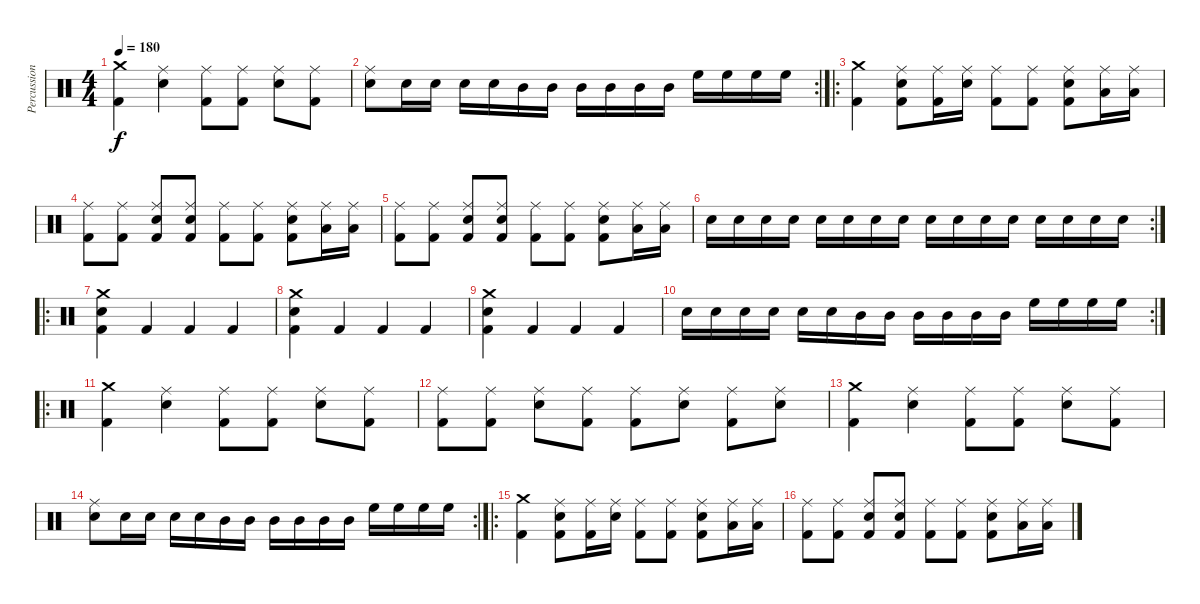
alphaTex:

\track ("Percussions" "Percussion") {instrument percussion}
\staff {score}
\articulation defaults
\ts (4 4)
\tempo 180
\clef neutral
\ks c
("Crash medium (hit)" "Kick (hit) 2").4{dy f} ("Ride (middle)" "Electric Snare (hit)").4 ("Ride (middle)" "Kick (hit) 2").8 ("Ride (middle)" "Kick (hit) 2").8 ("Ride (middle)" "Electric Snare (hit)").8 ("Ride (middle)" "Kick (hit) 2").8 |
\rc 2
("Ride (middle)" "Electric Snare (hit)").8 "Electric Snare (hit)".16 "Electric Snare (hit)".16 "Electric Snare (hit)".16 "Electric Snare (hit)".16 "Mid Tom (hit)".16 "Mid Tom (hit)".16 "Mid Tom (hit)".16 "Mid Tom (hit)".16 "Mid Tom (hit)".16 "Mid Tom (hit)".16 "High Floor Tom (hit)".16 "High Floor Tom (hit)".16 "High Floor Tom (hit)".16 "High Floor Tom (hit)".16 |
\ro
("Crash medium (hit)" "Kick (hit) 2").4 ("Ride (middle)" "Electric Snare (hit)" "Kick (hit) 2").8 ("Ride (middle)" "Kick (hit) 2").16 ("Ride (middle)" "Electric Snare (hit)").16 ("Ride (middle)" "Kick (hit) 2").8 ("Ride (middle)" "Kick (hit) 2").8 ("Ride (middle)" "Electric Snare (hit)" "Kick (hit) 2").8 ("Ride (middle)" "Low Floor Tom (hit)").16 ("Ride (middle)" "Low Floor Tom (hit)").16 |
("Ride (middle)" "Kick (hit) 2").8 ("Ride (middle)" "Kick (hit) 2").8 ("Ride (middle)" "Electric Snare (hit)" "Kick (hit) 2").8 ("Ride (middle)" "Electric Snare (hit)" "Kick (hit) 2").8 ("Ride (middle)" "Kick (hit) 2").8 ("Ride (middle)" "Kick (hit) 2").8 ("Ride (middle)" "Electric Snare (hit)" "Kick (hit) 2").8 ("Ride (middle)" "Low Floor Tom (hit)").16 ("Ride (middle)" "Low Floor Tom (hit)").16 |
("Ride (middle)" "Kick (hit) 2").8 ("Ride (middle)" "Kick (hit) 2").8 ("Ride (middle)" "Electric Snare (hit)" "Kick (hit) 2").8 ("Ride (middle)" "Electric Snare (hit)" "Kick (hit) 2").8 ("Ride (middle)" "Kick (hit) 2").8 ("Ride (middle)" "Kick (hit) 2").8 ("Ride (middle)" "Electric Snare (hit)" "Kick (hit) 2").8 ("Ride (middle)" "Low Floor Tom (hit)").16 ("Ride (middle)" "Low Floor Tom (hit)").16 |
\rc 2 "Electric Snare (hit)".16 "Electric Snare (hit)".16 "Electric Snare (hit)".16 "Electric Snare (hit)".16 "Electric Snare (hit)".16 "Electric Snare (hit)".16 "Electric Snare (hit)".16 "Electric Snare (hit)".16 "Electric Snare (hit)".16 "Electric Snare (hit)".16 "Electric Snare (hit)".16 "Electric Snare (hit)".16 "Electric Snare (hit)".16 "Electric Snare (hit)".16 "Electric Snare (hit)".16 "Electric Snare (hit)".16
|
\ro
("Crash medium (hit)" "Electric Snare (hit)" "Kick (hit) 2").4 "Kick (hit) 2".4 "Kick (hit) 2".4 "Kick (hit) 2".4 |
("Crash medium (hit)" "Electric Snare (hit)" "Kick (hit) 2").4 "Kick (hit) 2".4 "Kick (hit) 2".4 "Kick (hit) 2".4 |
("Crash medium (hit)" "Electric Snare (hit)" "Kick (hit) 2").4 "Kick (hit) 2".4 "Kick (hit) 2".4 "Kick (hit) 2".4 |
\rc 2 "Electric Snare (hit)".16 "Electric Snare (hit)".16 "Electric Snare (hit)".16 "Electric Snare (hit)".16 "Electric Snare (hit)".16 "Electric Snare (hit)".16 "Mid Tom (hit)".16 "Mid Tom (hit)".16 "Mid Tom (hit)".16 "Mid Tom (hit)".16 "Mid Tom (hit)".16 "Mid Tom (hit)".16 "High Floor Tom (hit)".16 "High Floor Tom (hit)".16 "High Floor Tom (hit)".16 "High Floor Tom (hit)".16
|
\ro
("Crash medium (hit)" "Kick (hit) 2").4 ("Ride (middle)" "Electric Snare (hit)").4 ("Ride (middle)" "Kick (hit) 2").8 ("Ride (middle)" "Kick (hit) 2").8 ("Ride (middle)" "Electric Snare (hit)").8 ("Ride (middle)" "Kick (hit) 2").8 |
("Ride (middle)" "Kick (hit) 2").8 ("Ride (middle)" "Kick (hit) 2").8 ("Ride (middle)" "Electric Snare (hit)").8 ("Ride (middle)" "Kick (hit) 2").8 ("Ride (middle)" "Kick (hit) 2").8 ("Ride (middle)" "Electric Snare (hit)").8 ("Ride (middle)" "Kick (hit) 2").8 ("Ride (middle)" "Electric Snare (hit)").8 |
("Crash medium (hit)" "Kick (hit) 2").4 ("Ride (middle)" "Electric Snare (hit)").4 ("Ride (middle)" "Kick (hit) 2").8 ("Ride (middle)" "Kick (hit) 2").8 ("Ride (middle)" "Electric Snare (hit)").8 ("Ride (middle)" "Kick (hit) 2").8 |
\rc 2
("Ride (middle)" "Electric Snare (hit)").8 "Electric Snare (hit)".16 "Electric Snare (hit)".16 "Electric Snare (hit)".16 "Electric Snare (hit)".16 "Mid Tom (hit)".16 "Mid Tom (hit)".16 "Mid Tom (hit)".16 "Mid Tom (hit)".16 "Mid Tom (hit)".16 "Mid Tom (hit)".16 "High Floor Tom (hit)".16 "High Floor Tom (hit)".16 "High Floor Tom (hit)".16 "High Floor Tom (hit)".16 |
\ro
("Crash medium (hit)" "Kick (hit) 2").4 ("Ride (middle)" "Electric Snare (hit)" "Kick (hit) 2").8 ("Ride (middle)" "Kick (hit) 2").16 ("Ride (middle)" "Electric Snare (hit)").16 ("Ride (middle)" "Kick (hit) 2").8 ("Ride (middle)" "Kick (hit) 2").8 ("Ride (middle)" "Electric Snare (hit)" "Kick (hit) 2").8 ("Ride (middle)" "Low Floor Tom (hit)").16 ("Ride (middle)" "Low Floor Tom (hit)").16 |
("Ride (middle)" "Kick (hit) 2").8 ("Ride (middle)" "Kick (hit) 2").8 ("Ride (middle)" "Electric Snare (hit)" "Kick (hit) 2").8 ("Ride (middle)" "Electric Snare (hit)" "Kick (hit) 2").8 ("Ride (middle)" "Kick (hit) 2").8 ("Ride (middle)" "Kick (hit) 2").8 ("Ride (middle)" "Electric Snare (hit)" "Kick (hit) 2").8 ("Ride (middle)" "Low Floor Tom (hit)").16 ("Ride (middle)" "Low Floor Tom (hit)").16
